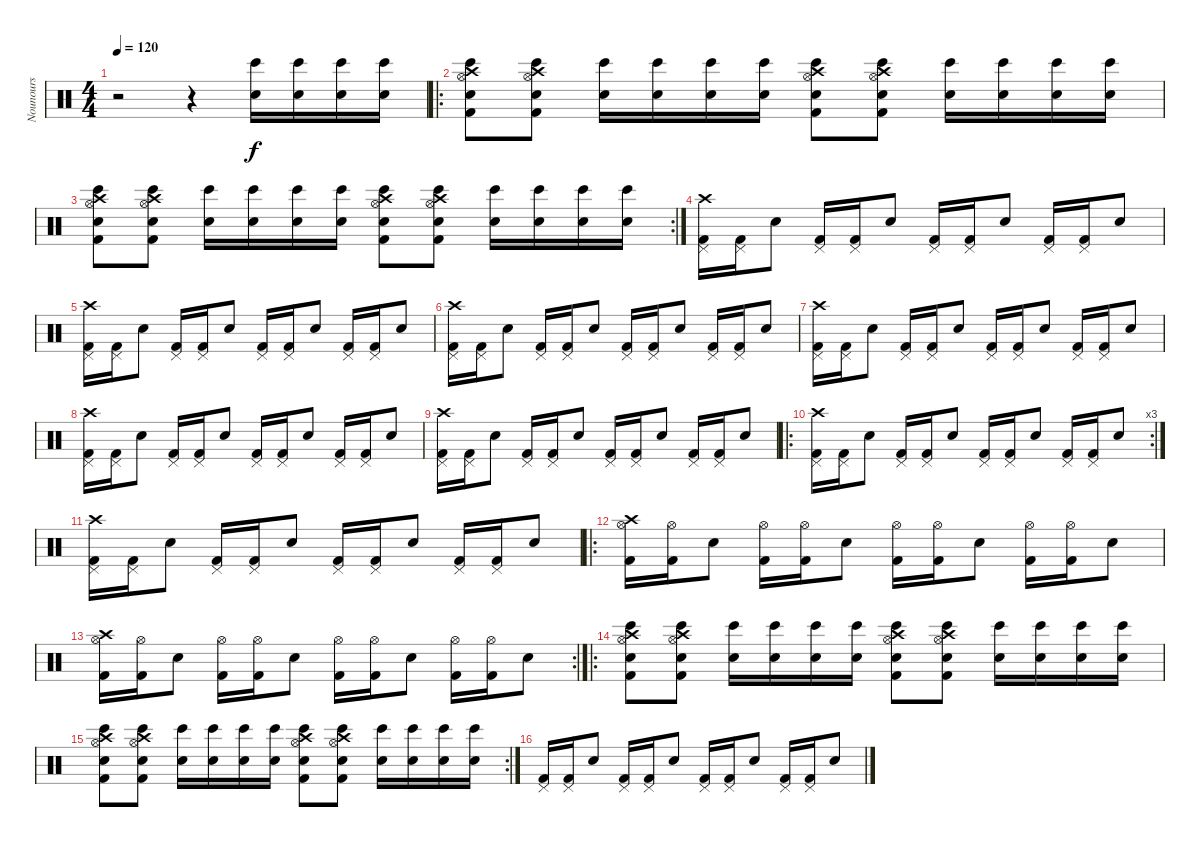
\track ("Nounours" "Nounours") {instrument percussion}
\staff {score}
\articulation defaults
\ts (4 4)
\tempo 120
\clef neutral
\ks c
r.2{dy f} r.4 ("Bongo High (hit)" "Electric Snare (hit)").16 ("Bongo High (hit)" "Electric Snare (hit)").16 ("Bongo High (hit)" "Electric Snare (hit)").16 ("Bongo High (hit)" "Electric Snare (hit)").16 |
\ro
("Crash high (hit)" "Electric Snare (hit)" "Hi-Hat (open)" "Bongo High (hit)" "Kick (hit) 2").8 ("Crash high (hit)" "Electric Snare (hit)" "Hi-Hat (open)" "Bongo High (hit)" "Kick (hit) 2").8 ("Bongo High (hit)" "Electric Snare (hit)").16 ("Bongo High (hit)" "Electric Snare (hit)").16 ("Bongo High (hit)" "Electric Snare (hit)").16 ("Bongo High (hit)" "Electric Snare (hit)").16 ("Crash high (hit)" "Electric Snare (hit)" "Hi-Hat (open)" "Bongo High (hit)" "Kick (hit) 2").8 ("Crash high (hit)" "Electric Snare (hit)" "Hi-Hat (open)" "Bongo High (hit)" "Kick (hit) 2").8 ("Bongo High (hit)" "Electric Snare (hit)").16 ("Bongo High (hit)" "Electric Snare (hit)").16 ("Bongo High (hit)" "Electric Snare (hit)").16 ("Bongo High (hit)" "Electric Snare (hit)").16 |
\rc 2
("Crash high (hit)" "Electric Snare (hit)" "Hi-Hat (open)" "Bongo High (hit)" "Kick (hit) 2").8 ("Crash high (hit)" "Electric Snare (hit)" "Hi-Hat (open)" "Bongo High (hit)" "Kick (hit) 2").8 ("Bongo High (hit)" "Electric Snare (hit)").16 ("Bongo High (hit)" "Electric Snare (hit)").16 ("Bongo High (hit)" "Electric Snare (hit)").16 ("Bongo High (hit)" "Electric Snare (hit)").16 ("Crash high (hit)" "Electric Snare (hit)" "Hi-Hat (open)" "Bongo High (hit)" "Kick (hit) 2").8 ("Crash high (hit)" "Electric Snare (hit)" "Hi-Hat (open)" "Bongo High (hit)" "Kick (hit) 2").8 ("Bongo High (hit)" "Electric Snare (hit)").16 ("Bongo High (hit)" "Electric Snare (hit)").16 ("Bongo High (hit)" "Electric Snare (hit)").16 ("Bongo High (hit)" "Electric Snare (hit)").16 |
("Crash high (hit)" "Pedal Hi-Hat (hit)" "Kick (hit) 2").16 ("Pedal Hi-Hat (hit)" "Kick (hit) 2").16 "Electric Snare (hit)".8 ("Pedal Hi-Hat (hit)" "Kick (hit) 2").16 ("Pedal Hi-Hat (hit)" "Kick (hit) 2").16 "Electric Snare (hit)".8 ("Pedal Hi-Hat (hit)" "Kick (hit) 2").16 ("Pedal Hi-Hat (hit)" "Kick (hit) 2").16 "Electric Snare (hit)".8 ("Pedal Hi-Hat (hit)" "Kick (hit) 2").16 ("Pedal Hi-Hat (hit)" "Kick (hit) 2").16 "Electric Snare (hit)".8 |
("Crash high (hit)" "Pedal Hi-Hat (hit)" "Kick (hit) 2").16 ("Pedal Hi-Hat (hit)" "Kick (hit) 2").16 "Electric Snare (hit)".8 ("Pedal Hi-Hat (hit)" "Kick (hit) 2").16 ("Pedal Hi-Hat (hit)" "Kick (hit) 2").16 "Electric Snare (hit)".8 ("Pedal Hi-Hat (hit)" "Kick (hit) 2").16 ("Pedal Hi-Hat (hit)" "Kick (hit) 2").16 "Electric Snare (hit)".8 ("Pedal Hi-Hat (hit)" "Kick (hit) 2").16 ("Pedal Hi-Hat (hit)" "Kick (hit) 2").16 "Electric Snare (hit)".8 |
("Crash high (hit)" "Pedal Hi-Hat (hit)" "Kick (hit) 2").16 ("Pedal Hi-Hat (hit)" "Kick (hit) 2").16 "Electric Snare (hit)".8 ("Pedal Hi-Hat (hit)" "Kick (hit) 2").16 ("Pedal Hi-Hat (hit)" "Kick (hit) 2").16 "Electric Snare (hit)".8 ("Pedal Hi-Hat (hit)" "Kick (hit) 2").16 ("Pedal Hi-Hat (hit)" "Kick (hit) 2").16 "Electric Snare (hit)".8 ("Pedal Hi-Hat (hit)" "Kick (hit) 2").16 ("Pedal Hi-Hat (hit)" "Kick (hit) 2").16 "Electric Snare (hit)".8 |
("Crash high (hit)" "Pedal Hi-Hat (hit)" "Kick (hit) 2").16 ("Pedal Hi-Hat (hit)" "Kick (hit) 2").16 "Electric Snare (hit)".8 ("Pedal Hi-Hat (hit)" "Kick (hit) 2").16 ("Pedal Hi-Hat (hit)" "Kick (hit) 2").16 "Electric Snare (hit)".8 ("Pedal Hi-Hat (hit)" "Kick (hit) 2").16 ("Pedal Hi-Hat (hit)" "Kick (hit) 2").16 "Electric Snare (hit)".8 ("Pedal Hi-Hat (hit)" "Kick (hit) 2").16 ("Pedal Hi-Hat (hit)" "Kick (hit) 2").16 "Electric Snare (hit)".8 |
("Crash high (hit)" "Pedal Hi-Hat (hit)" "Kick (hit) 2").16 ("Pedal Hi-Hat (hit)" "Kick (hit) 2").16 "Electric Snare (hit)".8 ("Pedal Hi-Hat (hit)" "Kick (hit) 2").16 ("Pedal Hi-Hat (hit)" "Kick (hit) 2").16 "Electric Snare (hit)".8 ("Pedal Hi-Hat (hit)" "Kick (hit) 2").16 ("Pedal Hi-Hat (hit)" "Kick (hit) 2").16 "Electric Snare (hit)".8 ("Pedal Hi-Hat (hit)" "Kick (hit) 2").16 ("Pedal Hi-Hat (hit)" "Kick (hit) 2").16 "Electric Snare (hit)".8 |
("Crash high (hit)" "Pedal Hi-Hat (hit)" "Kick (hit) 2").16 ("Pedal Hi-Hat (hit)" "Kick (hit) 2").16 "Electric Snare (hit)".8 ("Pedal Hi-Hat (hit)" "Kick (hit) 2").16 ("Pedal Hi-Hat (hit)" "Kick (hit) 2").16 "Electric Snare (hit)".8 ("Pedal Hi-Hat (hit)" "Kick (hit) 2").16 ("Pedal Hi-Hat (hit)" "Kick (hit) 2").16 "Electric Snare (hit)".8 ("Pedal Hi-Hat (hit)" "Kick (hit) 2").16 ("Pedal Hi-Hat (hit)" "Kick (hit) 2").16 "Electric Snare (hit)".8 |
\ro
\rc 3
("Crash high (hit)" "Pedal Hi-Hat (hit)" "Kick (hit) 2").16 ("Pedal Hi-Hat (hit)" "Kick (hit) 2").16 "Electric Snare (hit)".8 ("Pedal Hi-Hat (hit)" "Kick (hit) 2").16 ("Pedal Hi-Hat (hit)" "Kick (hit) 2").16 "Electric Snare (hit)".8 ("Pedal Hi-Hat (hit)" "Kick (hit) 2").16 ("Pedal Hi-Hat (hit)" "Kick (hit) 2").16 "Electric Snare (hit)".8 ("Pedal Hi-Hat (hit)" "Kick (hit) 2").16 ("Pedal Hi-Hat (hit)" "Kick (hit) 2").16 "Electric Snare (hit)".8 |
("Crash high (hit)" "Pedal Hi-Hat (hit)" "Kick (hit) 2").16 ("Pedal Hi-Hat (hit)" "Kick (hit) 2").16 "Electric Snare (hit)".8 ("Pedal Hi-Hat (hit)" "Kick (hit) 2").16 ("Pedal Hi-Hat (hit)" "Kick (hit) 2").16 "Electric Snare (hit)".8 ("Pedal Hi-Hat (hit)" "Kick (hit) 2").16 ("Pedal Hi-Hat (hit)" "Kick (hit) 2").16 "Electric Snare (hit)".8 ("Pedal Hi-Hat (hit)" "Kick (hit) 2").16 ("Pedal Hi-Hat (hit)" "Kick (hit) 2").16 "Electric Snare (hit)".8 |
\ro
("Crash high (hit)" "Hi-Hat (open)" "Kick (hit) 2").16 ("Hi-Hat (open)" "Kick (hit) 2").16 "Electric Snare (hit)".8 ("Hi-Hat (open)" "Kick (hit) 2").16 ("Hi-Hat (open)" "Kick (hit) 2").16 "Electric Snare (hit)".8 ("Hi-Hat (open)" "Kick (hit) 2").16 ("Hi-Hat (open)" "Kick (hit) 2").16 "Electric Snare (hit)".8 ("Hi-Hat (open)" "Kick (hit) 2").16 ("Hi-Hat (open)" "Kick (hit) 2").16 "Electric Snare (hit)".8 |
\rc 2
("Crash high (hit)" "Hi-Hat (open)" "Kick (hit) 2").16 ("Hi-Hat (open)" "Kick (hit) 2").16 "Electric Snare (hit)".8 ("Hi-Hat (open)" "Kick (hit) 2").16 ("Hi-Hat (open)" "Kick (hit) 2").16 "Electric Snare (hit)".8 ("Hi-Hat (open)" "Kick (hit) 2").16 ("Hi-Hat (open)" "Kick (hit) 2").16 "Electric Snare (hit)".8 ("Hi-Hat (open)" "Kick (hit) 2").16 ("Hi-Hat (open)" "Kick (hit) 2").16 "Electric Snare (hit)".8 |
\ro
("Crash high (hit)" "Electric Snare (hit)" "Hi-Hat (open)" "Bongo High (hit)" "Kick (hit) 2").8 ("Crash high (hit)" "Electric Snare (hit)" "Hi-Hat (open)" "Bongo High (hit)" "Kick (hit) 2").8 ("Bongo High (hit)" "Electric Snare (hit)").16 ("Bongo High (hit)" "Electric Snare (hit)").16 ("Bongo High (hit)" "Electric Snare (hit)").16 ("Bongo High (hit)" "Electric Snare (hit)").16 ("Crash high (hit)" "Electric Snare (hit)" "Hi-Hat (open)" "Bongo High (hit)" "Kick (hit) 2").8 ("Crash high (hit)" "Electric Snare (hit)" "Hi-Hat (open)" "Bongo High (hit)" "Kick (hit) 2").8 ("Bongo High (hit)" "Electric Snare (hit)").16 ("Bongo High (hit)" "Electric Snare (hit)").16 ("Bongo High (hit)" "Electric Snare (hit)").16 ("Bongo High (hit)" "Electric Snare (hit)").16 |
\rc 2
("Crash high (hit)" "Electric Snare (hit)" "Hi-Hat (open)" "Bongo High (hit)" "Kick (hit) 2").8 ("Crash high (hit)" "Electric Snare (hit)" "Hi-Hat (open)" "Bongo High (hit)" "Kick (hit) 2").8 ("Bongo High (hit)" "Electric Snare (hit)").16 ("Bongo High (hit)" "Electric Snare (hit)").16 ("Bongo High (hit)" "Electric Snare (hit)").16 ("Bongo High (hit)" "Electric Snare (hit)").16 ("Crash high (hit)" "Electric Snare (hit)" "Hi-Hat (open)" "Bongo High (hit)" "Kick (hit) 2").8 ("Crash high (hit)" "Electric Snare (hit)" "Hi-Hat (open)" "Bongo High (hit)" "Kick (hit) 2").8 ("Bongo High (hit)" "Electric Snare (hit)").16 ("Bongo High (hit)" "Electric Snare (hit)").16 ("Bongo High (hit)" "Electric Snare (hit)").16 ("Bongo High (hit)" "Electric Snare (hit)").16 |
("Pedal Hi-Hat (hit)" "Kick (hit) 2").16 ("Pedal Hi-Hat (hit)" "Kick (hit) 2").16 "Electric Snare (hit)".8 ("Pedal Hi-Hat (hit)" "Kick (hit) 2").16 ("Pedal Hi-Hat (hit)" "Kick (hit) 2").16 "Electric Snare (hit)".8 ("Pedal Hi-Hat (hit)" "Kick (hit) 2").16 ("Pedal Hi-Hat (hit)" "Kick (hit) 2").16 "Electric Snare (hit)".8 ("Pedal Hi-Hat (hit)" "Kick (hit) 2").16 ("Pedal Hi-Hat (hit)" "Kick (hit) 2").16 "Electric Snare (hit)".8
